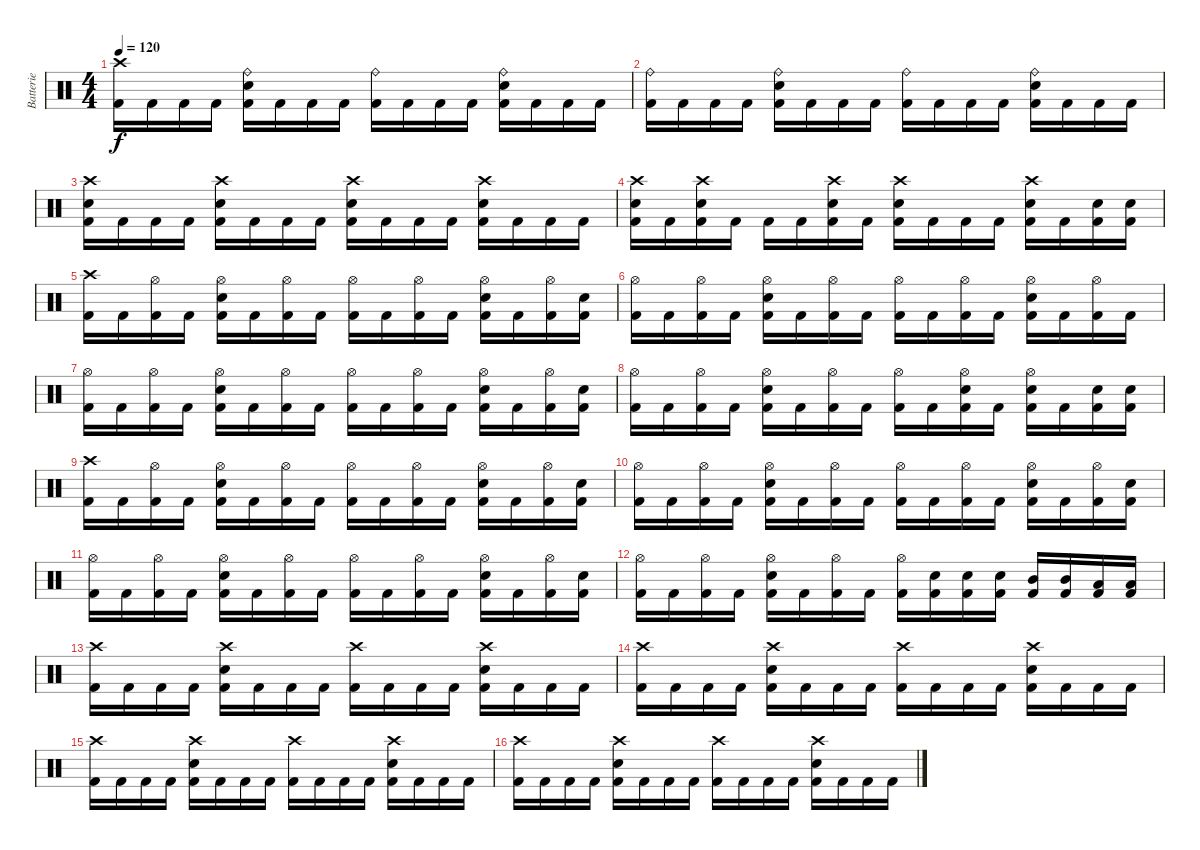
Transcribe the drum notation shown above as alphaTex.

\track ("Batterie" "Batterie") {instrument percussion}
\staff {score}
\articulation defaults
\ts (4 4)
\tempo 120
\clef neutral
\ks c
("Crash high (hit)" "Kick (hit) 2").16{dy f} "Kick (hit) 2".16 "Kick (hit) 2".16 "Kick (hit) 2".16 ("Electric Snare (hit)" "Ride (bell)" "Kick (hit) 2").16 "Kick (hit) 2".16 "Kick (hit) 2".16 "Kick (hit) 2".16 ("Ride (bell)" "Kick (hit) 2").16 "Kick (hit) 2".16 "Kick (hit) 2".16 "Kick (hit) 2".16 ("Electric Snare (hit)" "Ride (bell)" "Kick (hit) 2").16 "Kick (hit) 2".16 "Kick (hit) 2".16 "Kick (hit) 2".16 |
("Ride (bell)" "Kick (hit) 2").16 "Kick (hit) 2".16 "Kick (hit) 2".16 "Kick (hit) 2".16 ("Electric Snare (hit)" "Ride (bell)" "Kick (hit) 2").16 "Kick (hit) 2".16 "Kick (hit) 2".16 "Kick (hit) 2".16 ("Ride (bell)" "Kick (hit) 2").16 "Kick (hit) 2".16 "Kick (hit) 2".16 "Kick (hit) 2".16 ("Electric Snare (hit)" "Ride (bell)" "Kick (hit) 2").16 "Kick (hit) 2".16 "Kick (hit) 2".16 "Kick (hit) 2".16 |
("Crash high (hit)" "Kick (hit) 2" "Electric Snare (hit)").16 "Kick (hit) 2".16 "Kick (hit) 2".16 "Kick (hit) 2".16 ("Crash high (hit)" "Kick (hit) 2" "Electric Snare (hit)").16 "Kick (hit) 2".16 "Kick (hit) 2".16 "Kick (hit) 2".16 ("Crash high (hit)" "Kick (hit) 2" "Electric Snare (hit)").16 "Kick (hit) 2".16 "Kick (hit) 2".16 "Kick (hit) 2".16 ("Crash high (hit)" "Kick (hit) 2" "Electric Snare (hit)").16 "Kick (hit) 2".16 "Kick (hit) 2".16 "Kick (hit) 2".16 |
("Crash high (hit)" "Kick (hit) 2" "Electric Snare (hit)").16 "Kick (hit) 2".16 ("Crash high (hit)" "Kick (hit) 2" "Electric Snare (hit)").16 "Kick (hit) 2".16 "Kick (hit) 2".16 "Kick (hit) 2".16 ("Crash high (hit)" "Kick (hit) 2" "Electric Snare (hit)").16 "Kick (hit) 2".16 ("Crash high (hit)" "Kick (hit) 2" "Electric Snare (hit)").16 "Kick (hit) 2".16 "Kick (hit) 2".16 "Kick (hit) 2".16 ("Crash high (hit)" "Kick (hit) 2" "Electric Snare (hit)").16 "Kick (hit) 2".16 ("Kick (hit) 2" "Electric Snare (hit)").16 ("Kick (hit) 2" "Electric Snare (hit)").16 |
("Crash high (hit)" "Kick (hit) 2").16 "Kick (hit) 2".16 ("Hi-Hat (open)" "Kick (hit) 2").16 "Kick (hit) 2".16 ("Electric Snare (hit)" "Hi-Hat (open)" "Kick (hit) 2").16 "Kick (hit) 2".16 ("Hi-Hat (open)" "Kick (hit) 2").16 "Kick (hit) 2".16 ("Hi-Hat (open)" "Kick (hit) 2").16 "Kick (hit) 2".16 ("Hi-Hat (open)" "Kick (hit) 2").16 "Kick (hit) 2".16 ("Electric Snare (hit)" "Hi-Hat (open)" "Kick (hit) 2").16 "Kick (hit) 2".16 ("Hi-Hat (open)" "Kick (hit) 2").16 ("Electric Snare (hit)" "Kick (hit) 2").16 |
("Hi-Hat (open)" "Kick (hit) 2").16 "Kick (hit) 2".16 ("Hi-Hat (open)" "Kick (hit) 2").16 "Kick (hit) 2".16 ("Electric Snare (hit)" "Hi-Hat (open)" "Kick (hit) 2").16 "Kick (hit) 2".16 ("Hi-Hat (open)" "Kick (hit) 2").16 "Kick (hit) 2".16 ("Hi-Hat (open)" "Kick (hit) 2").16 "Kick (hit) 2".16 ("Hi-Hat (open)" "Kick (hit) 2").16 "Kick (hit) 2".16 ("Electric Snare (hit)" "Hi-Hat (open)" "Kick (hit) 2").16 "Kick (hit) 2".16 ("Hi-Hat (open)" "Kick (hit) 2").16 "Kick (hit) 2".16 |
("Hi-Hat (open)" "Kick (hit) 2").16 "Kick (hit) 2".16 ("Hi-Hat (open)" "Kick (hit) 2").16 "Kick (hit) 2".16 ("Electric Snare (hit)" "Hi-Hat (open)" "Kick (hit) 2").16 "Kick (hit) 2".16 ("Hi-Hat (open)" "Kick (hit) 2").16 "Kick (hit) 2".16 ("Hi-Hat (open)" "Kick (hit) 2").16 "Kick (hit) 2".16 ("Hi-Hat (open)" "Kick (hit) 2").16 "Kick (hit) 2".16 ("Electric Snare (hit)" "Hi-Hat (open)" "Kick (hit) 2").16 "Kick (hit) 2".16 ("Hi-Hat (open)" "Kick (hit) 2").16 ("Electric Snare (hit)" "Kick (hit) 2").16 |
("Hi-Hat (open)" "Kick (hit) 2").16 "Kick (hit) 2".16 ("Hi-Hat (open)" "Kick (hit) 2").16 "Kick (hit) 2".16 ("Electric Snare (hit)" "Hi-Hat (open)" "Kick (hit) 2").16 "Kick (hit) 2".16 ("Hi-Hat (open)" "Kick (hit) 2").16 "Kick (hit) 2".16 ("Hi-Hat (open)" "Kick (hit) 2").16 "Kick (hit) 2".16 ("Electric Snare (hit)" "Hi-Hat (open)" "Kick (hit) 2").16 "Kick (hit) 2".16 ("Electric Snare (hit)" "Hi-Hat (open)" "Kick (hit) 2").16 "Kick (hit) 2".16 ("Snare (hit) 2" "Kick (hit) 2").16 ("Snare (hit) 2" "Kick (hit) 2").16 |
("Crash high (hit)" "Kick (hit) 2").16 "Kick (hit) 2".16 ("Hi-Hat (open)" "Kick (hit) 2").16 "Kick (hit) 2".16 ("Electric Snare (hit)" "Hi-Hat (open)" "Kick (hit) 2").16 "Kick (hit) 2".16 ("Hi-Hat (open)" "Kick (hit) 2").16 "Kick (hit) 2".16 ("Hi-Hat (open)" "Kick (hit) 2").16 "Kick (hit) 2".16 ("Hi-Hat (open)" "Kick (hit) 2").16 "Kick (hit) 2".16 ("Electric Snare (hit)" "Hi-Hat (open)" "Kick (hit) 2").16 "Kick (hit) 2".16 ("Hi-Hat (open)" "Kick (hit) 2").16 ("Electric Snare (hit)" "Kick (hit) 2").16 |
("Hi-Hat (open)" "Kick (hit) 2").16 "Kick (hit) 2".16 ("Hi-Hat (open)" "Kick (hit) 2").16 "Kick (hit) 2".16 ("Electric Snare (hit)" "Hi-Hat (open)" "Kick (hit) 2").16 "Kick (hit) 2".16 ("Hi-Hat (open)" "Kick (hit) 2").16 "Kick (hit) 2".16 ("Hi-Hat (open)" "Kick (hit) 2").16 "Kick (hit) 2".16 ("Hi-Hat (open)" "Kick (hit) 2").16 "Kick (hit) 2".16 ("Electric Snare (hit)" "Hi-Hat (open)" "Kick (hit) 2").16 "Kick (hit) 2".16 ("Hi-Hat (open)" "Kick (hit) 2").16 ("Electric Snare (hit)" "Kick (hit) 2").16 |
("Hi-Hat (open)" "Kick (hit) 2").16 "Kick (hit) 2".16 ("Hi-Hat (open)" "Kick (hit) 2").16 "Kick (hit) 2".16 ("Electric Snare (hit)" "Hi-Hat (open)" "Kick (hit) 2").16 "Kick (hit) 2".16 ("Hi-Hat (open)" "Kick (hit) 2").16 "Kick (hit) 2".16 ("Hi-Hat (open)" "Kick (hit) 2").16 "Kick (hit) 2".16 ("Hi-Hat (open)" "Kick (hit) 2").16 "Kick (hit) 2".16 ("Electric Snare (hit)" "Hi-Hat (open)" "Kick (hit) 2").16 "Kick (hit) 2".16 ("Hi-Hat (open)" "Kick (hit) 2").16 ("Electric Snare (hit)" "Kick (hit) 2").16 |
("Hi-Hat (open)" "Kick (hit) 2").16 "Kick (hit) 2".16 ("Hi-Hat (open)" "Kick (hit) 2").16 "Kick (hit) 2".16 ("Electric Snare (hit)" "Hi-Hat (open)" "Kick (hit) 2").16 "Kick (hit) 2".16 ("Hi-Hat (open)" "Kick (hit) 2").16 "Kick (hit) 2".16 ("Hi-Hat (open)" "Kick (hit) 2").16 ("Electric Snare (hit)" "Kick (hit) 2").16 ("Electric Snare (hit)" "Kick (hit) 2").16 ("Electric Snare (hit)" "Kick (hit) 2").16 ("Mid Tom (hit)" "Kick (hit) 2").16 ("Mid Tom (hit)" "Kick (hit) 2").16 ("Low Tom (hit)" "Kick (hit) 2").16 ("Low Tom (hit)" "Kick (hit) 2").16 |
("Crash high (hit)" "Kick (hit) 2").16 "Kick (hit) 2".16 "Kick (hit) 2".16 "Kick (hit) 2".16 ("Electric Snare (hit)" "Crash high (hit)" "Kick (hit) 2").16 "Kick (hit) 2".16 "Kick (hit) 2".16 "Kick (hit) 2".16 ("Crash high (hit)" "Kick (hit) 2").16 "Kick (hit) 2".16 "Kick (hit) 2".16 "Kick (hit) 2".16 ("Electric Snare (hit)" "Crash high (hit)" "Kick (hit) 2").16 "Kick (hit) 2".16 "Kick (hit) 2".16 "Kick (hit) 2".16 |
("Crash high (hit)" "Kick (hit) 2").16 "Kick (hit) 2".16 "Kick (hit) 2".16 "Kick (hit) 2".16 ("Electric Snare (hit)" "Crash high (hit)" "Kick (hit) 2").16 "Kick (hit) 2".16 "Kick (hit) 2".16 "Kick (hit) 2".16 ("Crash high (hit)" "Kick (hit) 2").16 "Kick (hit) 2".16 "Kick (hit) 2".16 "Kick (hit) 2".16 ("Electric Snare (hit)" "Crash high (hit)" "Kick (hit) 2").16 "Kick (hit) 2".16 "Kick (hit) 2".16 "Kick (hit) 2".16 |
("Crash high (hit)" "Kick (hit) 2").16 "Kick (hit) 2".16 "Kick (hit) 2".16 "Kick (hit) 2".16 ("Electric Snare (hit)" "Crash high (hit)" "Kick (hit) 2").16 "Kick (hit) 2".16 "Kick (hit) 2".16 "Kick (hit) 2".16 ("Crash high (hit)" "Kick (hit) 2").16 "Kick (hit) 2".16 "Kick (hit) 2".16 "Kick (hit) 2".16 ("Electric Snare (hit)" "Crash high (hit)" "Kick (hit) 2").16 "Kick (hit) 2".16 "Kick (hit) 2".16 "Kick (hit) 2".16 |
("Crash high (hit)" "Kick (hit) 2").16 "Kick (hit) 2".16 "Kick (hit) 2".16 "Kick (hit) 2".16 ("Electric Snare (hit)" "Crash high (hit)" "Kick (hit) 2").16 "Kick (hit) 2".16 "Kick (hit) 2".16 "Kick (hit) 2".16 ("Crash high (hit)" "Kick (hit) 2").16 "Kick (hit) 2".16 "Kick (hit) 2".16 "Kick (hit) 2".16 ("Electric Snare (hit)" "Crash high (hit)" "Kick (hit) 2").16 "Kick (hit) 2".16 "Kick (hit) 2".16 "Kick (hit) 2".16
